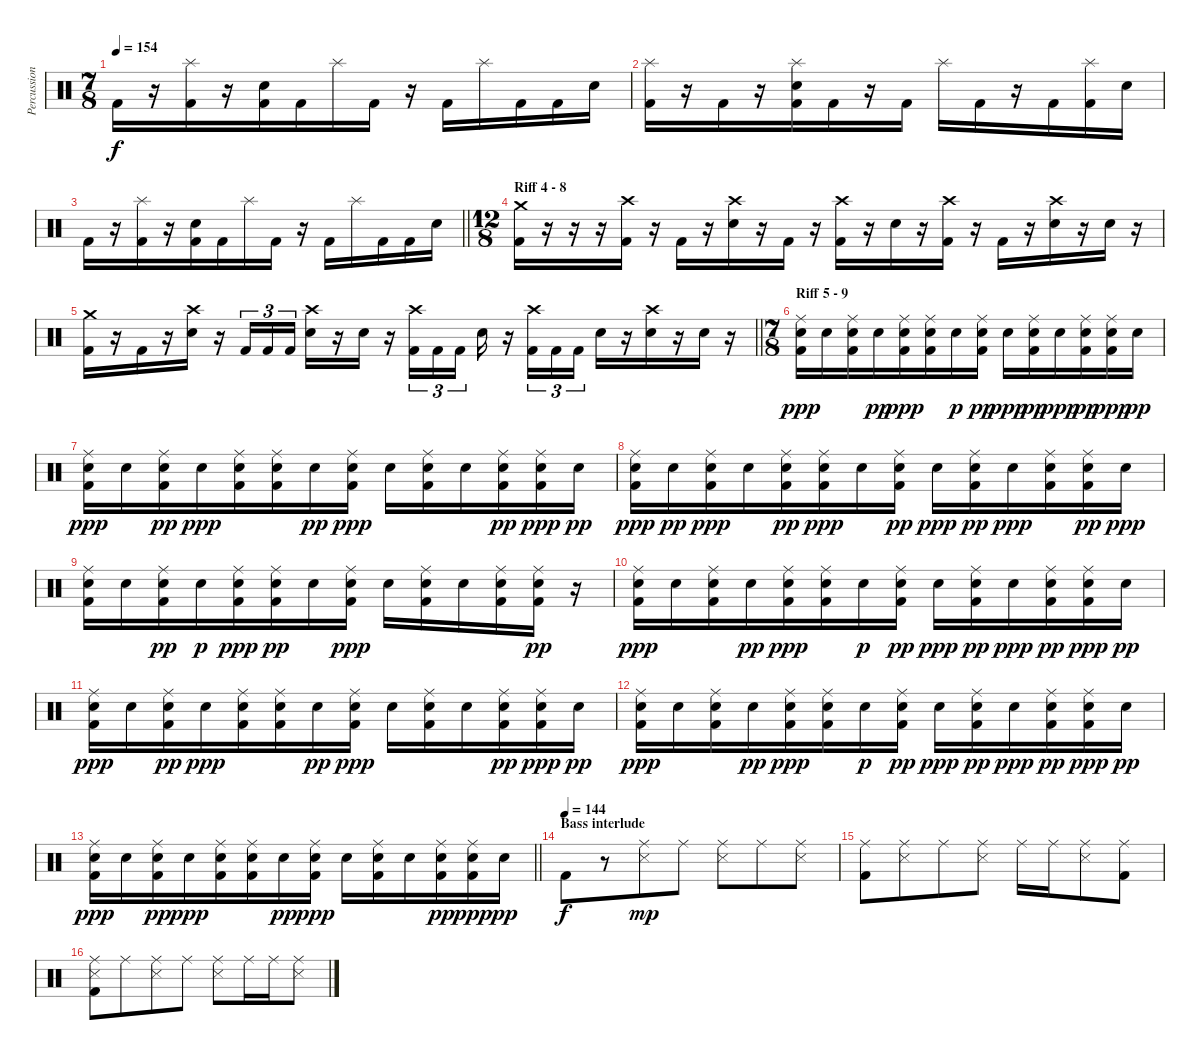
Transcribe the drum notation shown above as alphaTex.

\track ("Percussions" "Percussion") {instrument percussion}
\staff {score}
\articulation defaults
\ts (7 8)
\tempo 154
\clef neutral
\ks c "Kick (hit) 2".16{dy f}
r.16 ("Splash (hit)" "Kick (hit) 2").16 r.16 ("Electric Snare (hit)" "Kick (hit) 2").16 "Kick (hit) 2".16 "Splash (hit)".16 "Kick (hit) 2".16 r.16 "Kick (hit) 2".16 "Splash (hit)".16 "Kick (hit) 2".16 "Kick (hit) 2".16 "Electric Snare (hit)".16 |
("Splash (hit)" "Kick (hit) 2").16 r.16 "Kick (hit) 2".16 r.16 ("Splash (hit)" "Electric Snare (hit)" "Kick (hit) 2").16 "Kick (hit) 2".16 r.16 "Kick (hit) 2".16 "Splash (hit)".16 "Kick (hit) 2".16 r.16 "Kick (hit) 2".16 ("Splash (hit)" "Kick (hit) 2").16 "Electric Snare (hit)".16 |
\barLineRight lightlight "Kick (hit) 2".16
r.16 ("Splash (hit)" "Kick (hit) 2").16 r.16 ("Electric Snare (hit)" "Kick (hit) 2").16 "Kick (hit) 2".16 "Splash (hit)".16 "Kick (hit) 2".16 r.16 "Kick (hit) 2".16 "Splash (hit)".16 "Kick (hit) 2".16 "Kick (hit) 2".16 "Electric Snare (hit)".16 |
\ts (12 8)
\section ("" "Riff 4 - 8")
("Crash medium (hit)" "Kick (hit) 2").16 r.16 r.16 r.16 ("Crash high (hit)" "Kick (hit) 2").16 r.16 "Kick (hit) 2".16 r.16 ("Crash high (hit)" "Electric Snare (hit)").16 r.16 "Kick (hit) 2".16 r.16 ("Crash high (hit)" "Kick (hit) 2").16 r.16 "Electric Snare (hit)".16 r.16 ("Crash high (hit)" "Kick (hit) 2").16 r.16 "Kick (hit) 2".16 r.16 ("Crash high (hit)" "Electric Snare (hit)").16 r.16 "Electric Snare (hit)".16 r.16 |
\barLineRight lightlight
("Crash medium (hit)" "Kick (hit) 2").16 r.16 "Kick (hit) 2".16 r.16 ("Crash high (hit)" "Electric Snare (hit)").16 r.16 "Kick (hit) 2".16{tu (3 2)} "Kick (hit) 2".16{tu (3 2)} "Kick (hit) 2".16{tu (3 2) beam splitsecondary} ("Crash high (hit)" "Electric Snare (hit)").16 r.16 "Electric Snare (hit)".16 r.16 ("Crash high (hit)" "Kick (hit) 2").16{tu (3 2)} "Kick (hit) 2".16{tu (3 2)} "Kick (hit) 2".16{tu (3 2) beam splitsecondary} "Electric Snare (hit)".16 r.16 ("Crash high (hit)" "Kick (hit) 2").16{tu (3 2)} "Kick (hit) 2".16{tu (3 2)} "Kick (hit) 2".16{tu (3 2)} "Electric Snare (hit)".16 r.16 ("Crash high (hit)" "Electric Snare (hit)").16 r.16 "Electric Snare (hit)".16 r.16 |
\ts (7 8)
\section ("" "Riff 5 - 9")
("Ride (middle)" "Electric Snare (hit)" "Kick (hit) 2").16{dy ppp} "Electric Snare (hit)".16 ("Ride (middle)" "Electric Snare (hit)" "Kick (hit) 2").16 "Electric Snare (hit)".16{dy pp} ("Ride (middle)" "Electric Snare (hit)" "Kick (hit) 2").16{dy ppp} ("Ride (middle)" "Electric Snare (hit)" "Kick (hit) 2").16 "Electric Snare (hit)".16{dy p} ("Ride (middle)" "Electric Snare (hit)" "Kick (hit) 2").16{dy pp} "Electric Snare (hit)".16{dy ppp} ("Ride (middle)" "Electric Snare (hit)" "Kick (hit) 2").16{dy pp} "Electric Snare (hit)".16{dy ppp} ("Ride (middle)" "Electric Snare (hit)" "Kick (hit) 2").16{dy pp} ("Ride (middle)" "Electric Snare (hit)" "Kick (hit) 2").16{dy ppp} "Electric Snare (hit)".16{dy pp} |
("Ride (middle)" "Electric Snare (hit)" "Kick (hit) 2").16{dy ppp} "Electric Snare (hit)".16 ("Ride (middle)" "Electric Snare (hit)" "Kick (hit) 2").16{dy pp} "Electric Snare (hit)".16{dy ppp} ("Ride (middle)" "Electric Snare (hit)" "Kick (hit) 2").16 ("Ride (middle)" "Electric Snare (hit)" "Kick (hit) 2").16 "Electric Snare (hit)".16{dy pp} ("Ride (middle)" "Electric Snare (hit)" "Kick (hit) 2").16{dy ppp} "Electric Snare (hit)".16 ("Ride (middle)" "Electric Snare (hit)" "Kick (hit) 2").16 "Electric Snare (hit)".16 ("Ride (middle)" "Electric Snare (hit)" "Kick (hit) 2").16{dy pp} ("Ride (middle)" "Electric Snare (hit)" "Kick (hit) 2").16{dy ppp} "Electric Snare (hit)".16{dy pp} |
("Ride (middle)" "Electric Snare (hit)" "Kick (hit) 2").16{dy ppp} "Electric Snare (hit)".16{dy pp} ("Ride (middle)" "Electric Snare (hit)" "Kick (hit) 2").16{dy ppp} "Electric Snare (hit)".16 ("Ride (middle)" "Electric Snare (hit)" "Kick (hit) 2").16{dy pp} ("Ride (middle)" "Electric Snare (hit)" "Kick (hit) 2").16{dy ppp} "Electric Snare (hit)".16 ("Ride (middle)" "Electric Snare (hit)" "Kick (hit) 2").16{dy pp} "Electric Snare (hit)".16{dy ppp} ("Ride (middle)" "Electric Snare (hit)" "Kick (hit) 2").16{dy pp} "Electric Snare (hit)".16{dy ppp} ("Ride (middle)" "Electric Snare (hit)" "Kick (hit) 2").16 ("Ride (middle)" "Electric Snare (hit)" "Kick (hit) 2").16{dy pp} "Electric Snare (hit)".16{dy ppp} |
("Ride (middle)" "Electric Snare (hit)" "Kick (hit) 2").16 "Electric Snare (hit)".16 ("Ride (middle)" "Electric Snare (hit)" "Kick (hit) 2").16{dy pp} "Electric Snare (hit)".16{dy p} ("Ride (middle)" "Electric Snare (hit)" "Kick (hit) 2").16{dy ppp} ("Ride (middle)" "Electric Snare (hit)" "Kick (hit) 2").16{dy pp} "Electric Snare (hit)".16 ("Ride (middle)" "Electric Snare (hit)" "Kick (hit) 2").16{dy ppp} "Electric Snare (hit)".16 ("Ride (middle)" "Electric Snare (hit)" "Kick (hit) 2").16 "Electric Snare (hit)".16 ("Ride (middle)" "Electric Snare (hit)" "Kick (hit) 2").16 ("Ride (middle)" "Electric Snare (hit)" "Kick (hit) 2").16{dy pp} r.16 |
("Ride (middle)" "Electric Snare (hit)" "Kick (hit) 2").16{dy ppp} "Electric Snare (hit)".16 ("Ride (middle)" "Electric Snare (hit)" "Kick (hit) 2").16 "Electric Snare (hit)".16{dy pp} ("Ride (middle)" "Electric Snare (hit)" "Kick (hit) 2").16{dy ppp} ("Ride (middle)" "Electric Snare (hit)" "Kick (hit) 2").16 "Electric Snare (hit)".16{dy p} ("Ride (middle)" "Electric Snare (hit)" "Kick (hit) 2").16{dy pp} "Electric Snare (hit)".16{dy ppp} ("Ride (middle)" "Electric Snare (hit)" "Kick (hit) 2").16{dy pp} "Electric Snare (hit)".16{dy ppp} ("Ride (middle)" "Electric Snare (hit)" "Kick (hit) 2").16{dy pp} ("Ride (middle)" "Electric Snare (hit)" "Kick (hit) 2").16{dy ppp} "Electric Snare (hit)".16{dy pp} |
("Ride (middle)" "Electric Snare (hit)" "Kick (hit) 2").16{dy ppp} "Electric Snare (hit)".16 ("Ride (middle)" "Electric Snare (hit)" "Kick (hit) 2").16{dy pp} "Electric Snare (hit)".16{dy ppp} ("Ride (middle)" "Electric Snare (hit)" "Kick (hit) 2").16 ("Ride (middle)" "Electric Snare (hit)" "Kick (hit) 2").16 "Electric Snare (hit)".16{dy pp} ("Ride (middle)" "Electric Snare (hit)" "Kick (hit) 2").16{dy ppp} "Electric Snare (hit)".16 ("Ride (middle)" "Electric Snare (hit)" "Kick (hit) 2").16 "Electric Snare (hit)".16 ("Ride (middle)" "Electric Snare (hit)" "Kick (hit) 2").16{dy pp} ("Ride (middle)" "Electric Snare (hit)" "Kick (hit) 2").16{dy ppp} "Electric Snare (hit)".16{dy pp} |
("Ride (middle)" "Electric Snare (hit)" "Kick (hit) 2").16{dy ppp} "Electric Snare (hit)".16 ("Ride (middle)" "Electric Snare (hit)" "Kick (hit) 2").16 "Electric Snare (hit)".16{dy pp} ("Ride (middle)" "Electric Snare (hit)" "Kick (hit) 2").16{dy ppp} ("Ride (middle)" "Electric Snare (hit)" "Kick (hit) 2").16 "Electric Snare (hit)".16{dy p} ("Ride (middle)" "Electric Snare (hit)" "Kick (hit) 2").16{dy pp} "Electric Snare (hit)".16{dy ppp} ("Ride (middle)" "Electric Snare (hit)" "Kick (hit) 2").16{dy pp} "Electric Snare (hit)".16{dy ppp} ("Ride (middle)" "Electric Snare (hit)" "Kick (hit) 2").16{dy pp} ("Ride (middle)" "Electric Snare (hit)" "Kick (hit) 2").16{dy ppp} "Electric Snare (hit)".16{dy pp} |
\barLineRight lightlight
("Ride (middle)" "Electric Snare (hit)" "Kick (hit) 2").16{dy ppp} "Electric Snare (hit)".16 ("Ride (middle)" "Electric Snare (hit)" "Kick (hit) 2").16{dy pp} "Electric Snare (hit)".16{dy ppp} ("Ride (middle)" "Electric Snare (hit)" "Kick (hit) 2").16 ("Ride (middle)" "Electric Snare (hit)" "Kick (hit) 2").16 "Electric Snare (hit)".16{dy pp} ("Ride (middle)" "Electric Snare (hit)" "Kick (hit) 2").16{dy ppp} "Electric Snare (hit)".16 ("Ride (middle)" "Electric Snare (hit)" "Kick (hit) 2").16 "Electric Snare (hit)".16 ("Ride (middle)" "Electric Snare (hit)" "Kick (hit) 2").16{dy pp} ("Ride (middle)" "Electric Snare (hit)" "Kick (hit) 2").16{dy ppp} "Electric Snare (hit)".16{dy pp} |
\section ("" "Bass interlude")
\tempo (144)
"Kick (hit) 2".8{dy f} r.8 ("Ride (middle)" "Metronome (hit)").8{dy mp} "Ride (middle)".8 ("Ride (middle)" "Metronome (hit)").8 "Ride (middle)".8 ("Ride (middle)" "Metronome (hit)").8 |
("Ride (middle)" "Kick (hit) 2").8 ("Ride (middle)" "Metronome (hit)").8 "Ride (middle)".8 ("Ride (middle)" "Metronome (hit)").8 "Ride (middle)".16 "Ride (middle)".16 ("Ride (middle)" "Metronome (hit)").8 ("Ride (middle)" "Kick (hit) 2").8 |
("Ride (middle)" "Metronome (hit)" "Kick (hit) 2").8 "Ride (middle)".8 ("Ride (middle)" "Metronome (hit)").8 "Ride (middle)".8 ("Ride (middle)" "Metronome (hit)").8 "Ride (middle)".16 "Ride (middle)".16 ("Ride (middle)" "Metronome (hit)").8
